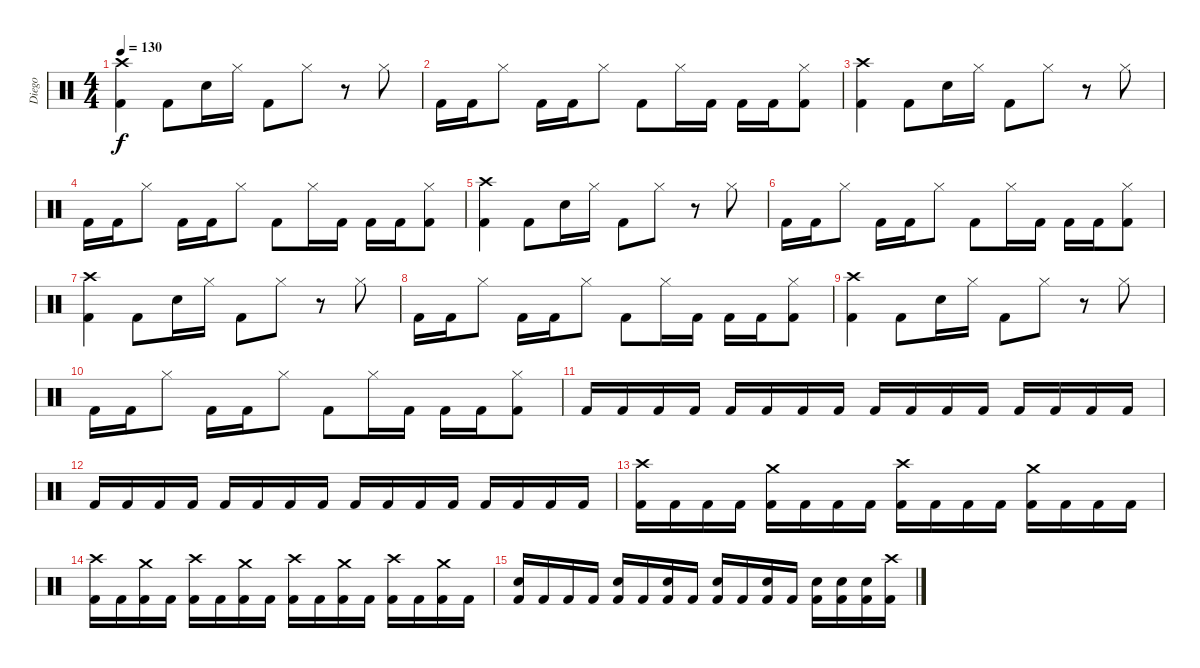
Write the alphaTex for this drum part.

\track ("Diego" "Diego") {instrument percussion}
\staff {score}
\articulation defaults
\ts (4 4)
\tempo 130
\clef neutral
\ks c
("Crash high (hit)" "Kick (hit) 2").4{dy f} "Kick (hit) 2".8 "Snare (hit) 2".16 "Hi-Hat (closed)".16 "Kick (hit) 2".8 "Hi-Hat (closed)".8 r.8 "Hi-Hat (closed)".8 |
"Kick (hit) 2".16 "Kick (hit) 2".16 "Hi-Hat (closed)".8 "Kick (hit) 2".16 "Kick (hit) 2".16 "Hi-Hat (closed)".8 "Kick (hit) 2".8 "Hi-Hat (closed)".16 "Kick (hit) 2".16 "Kick (hit) 2".16 "Kick (hit) 2".16 ("Hi-Hat (closed)" "Kick (hit) 2").8 |
("Crash high (hit)" "Kick (hit) 2").4 "Kick (hit) 2".8 "Snare (hit) 2".16 "Hi-Hat (closed)".16 "Kick (hit) 2".8 "Hi-Hat (closed)".8 r.8 "Hi-Hat (closed)".8 |
"Kick (hit) 2".16 "Kick (hit) 2".16 "Hi-Hat (closed)".8 "Kick (hit) 2".16 "Kick (hit) 2".16 "Hi-Hat (closed)".8 "Kick (hit) 2".8 "Hi-Hat (closed)".16 "Kick (hit) 2".16 "Kick (hit) 2".16 "Kick (hit) 2".16 ("Hi-Hat (closed)" "Kick (hit) 2").8 |
("Crash high (hit)" "Kick (hit) 2").4 "Kick (hit) 2".8 "Snare (hit) 2".16 "Hi-Hat (closed)".16 "Kick (hit) 2".8 "Hi-Hat (closed)".8 r.8 "Hi-Hat (closed)".8 |
"Kick (hit) 2".16 "Kick (hit) 2".16 "Hi-Hat (closed)".8 "Kick (hit) 2".16 "Kick (hit) 2".16 "Hi-Hat (closed)".8 "Kick (hit) 2".8 "Hi-Hat (closed)".16 "Kick (hit) 2".16 "Kick (hit) 2".16 "Kick (hit) 2".16 ("Hi-Hat (closed)" "Kick (hit) 2").8 |
("Crash high (hit)" "Kick (hit) 2").4 "Kick (hit) 2".8 "Snare (hit) 2".16 "Hi-Hat (closed)".16 "Kick (hit) 2".8 "Hi-Hat (closed)".8 r.8 "Hi-Hat (closed)".8 |
"Kick (hit) 2".16 "Kick (hit) 2".16 "Hi-Hat (closed)".8 "Kick (hit) 2".16 "Kick (hit) 2".16 "Hi-Hat (closed)".8 "Kick (hit) 2".8 "Hi-Hat (closed)".16 "Kick (hit) 2".16 "Kick (hit) 2".16 "Kick (hit) 2".16 ("Hi-Hat (closed)" "Kick (hit) 2").8 |
("Crash high (hit)" "Kick (hit) 2").4 "Kick (hit) 2".8 "Snare (hit) 2".16 "Hi-Hat (closed)".16 "Kick (hit) 2".8 "Hi-Hat (closed)".8 r.8 "Hi-Hat (closed)".8 |
"Kick (hit) 2".16 "Kick (hit) 2".16 "Hi-Hat (closed)".8 "Kick (hit) 2".16 "Kick (hit) 2".16 "Hi-Hat (closed)".8 "Kick (hit) 2".8 "Hi-Hat (closed)".16 "Kick (hit) 2".16 "Kick (hit) 2".16 "Kick (hit) 2".16 ("Hi-Hat (closed)" "Kick (hit) 2").8 |
"Kick (hit) 2".16 "Kick (hit) 2".16 "Kick (hit) 2".16 "Kick (hit) 2".16 "Kick (hit) 2".16 "Kick (hit) 2".16 "Kick (hit) 2".16 "Kick (hit) 2".16 "Kick (hit) 2".16 "Kick (hit) 2".16 "Kick (hit) 2".16 "Kick (hit) 2".16 "Kick (hit) 2".16 "Kick (hit) 2".16 "Kick (hit) 2".16 "Kick (hit) 2".16 |
"Kick (hit) 2".16 "Kick (hit) 2".16 "Kick (hit) 2".16 "Kick (hit) 2".16 "Kick (hit) 2".16 "Kick (hit) 2".16 "Kick (hit) 2".16 "Kick (hit) 2".16 "Kick (hit) 2".16 "Kick (hit) 2".16 "Kick (hit) 2".16 "Kick (hit) 2".16 "Kick (hit) 2".16 "Kick (hit) 2".16 "Kick (hit) 2".16 "Kick (hit) 2".16 |
("Crash high (hit)" "Kick (hit) 2").16 "Kick (hit) 2".16 "Kick (hit) 2".16 "Kick (hit) 2".16 ("Crash medium (hit)" "Kick (hit) 2").16 "Kick (hit) 2".16 "Kick (hit) 2".16 "Kick (hit) 2".16 ("Crash high (hit)" "Kick (hit) 2").16 "Kick (hit) 2".16 "Kick (hit) 2".16 "Kick (hit) 2".16 ("Crash medium (hit)" "Kick (hit) 2").16 "Kick (hit) 2".16 "Kick (hit) 2".16 "Kick (hit) 2".16 |
("Crash high (hit)" "Kick (hit) 2").16 "Kick (hit) 2".16 ("Crash medium (hit)" "Kick (hit) 2").16 "Kick (hit) 2".16 ("Crash high (hit)" "Kick (hit) 2").16 "Kick (hit) 2".16 ("Crash medium (hit)" "Kick (hit) 2").16 "Kick (hit) 2".16 ("Crash high (hit)" "Kick (hit) 2").16 "Kick (hit) 2".16 ("Crash medium (hit)" "Kick (hit) 2").16 "Kick (hit) 2".16 ("Crash high (hit)" "Kick (hit) 2").16 "Kick (hit) 2".16 ("Crash medium (hit)" "Kick (hit) 2").16 "Kick (hit) 2".16 |
("Snare (hit) 2" "Kick (hit) 2").16 "Kick (hit) 2".16 "Kick (hit) 2".16 "Kick (hit) 2".16 ("Snare (hit) 2" "Kick (hit) 2").16 "Kick (hit) 2".16 ("Snare (hit) 2" "Kick (hit) 2").16 "Kick (hit) 2".16 ("Snare (hit) 2" "Kick (hit) 2").16 "Kick (hit) 2".16 ("Snare (hit) 2" "Kick (hit) 2").16 "Kick (hit) 2".16 ("Snare (hit) 2" "Kick (hit) 2").16 ("Snare (hit) 2" "Kick (hit) 2").16 ("Snare (hit) 2" "Kick (hit) 2").16 ("Crash high (hit)" "Kick (hit) 2").16
